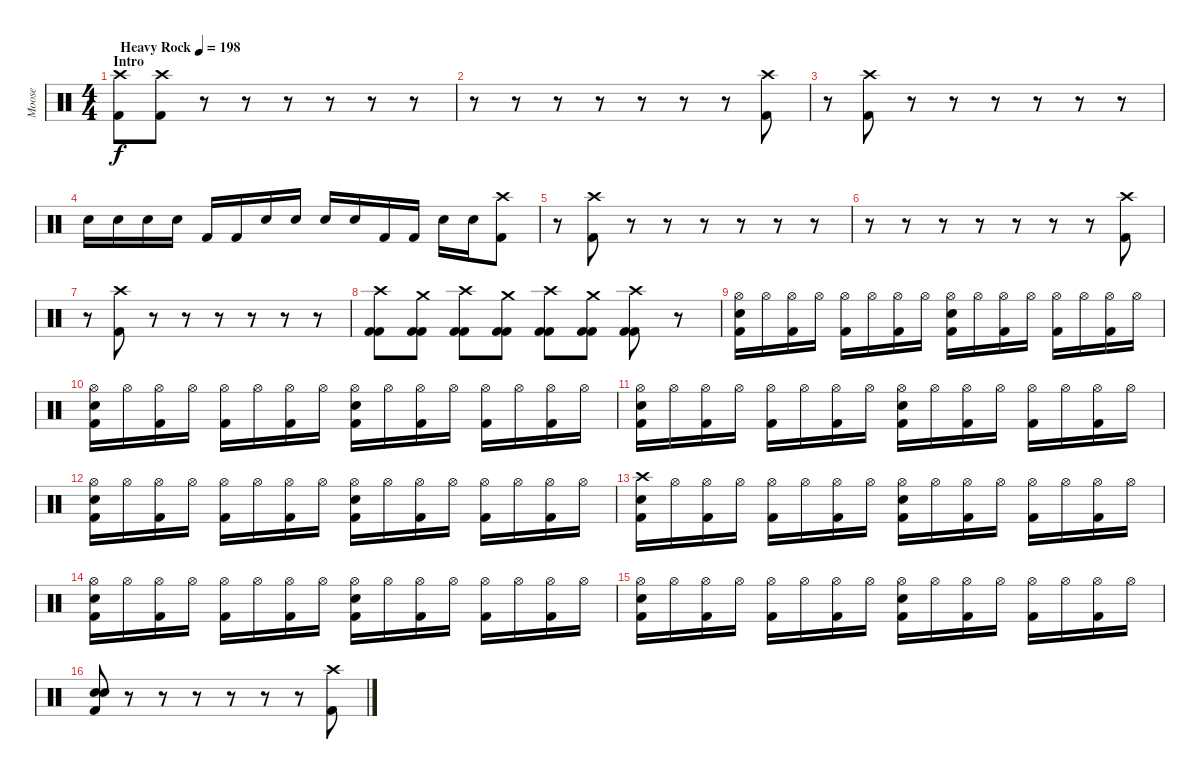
\track ("Moose" "Moose") {instrument percussion}
\staff {score}
\articulation defaults
\ts (4 4)
\section ("" "Intro")
\tempo (198 "Heavy Rock")
\clef neutral
\ks c
("Crash high (hit)" "Kick (hit) 2").8{dy f} ("Crash high (hit)" "Kick (hit) 2").8 r.8 r.8 r.8 r.8 r.8 r.8 |
r.8 r.8 r.8 r.8 r.8 r.8 r.8 ("Crash high (hit)" "Kick (hit) 2").8 |
r.8 ("Crash high (hit)" "Kick (hit) 2").8 r.8 r.8 r.8 r.8 r.8 r.8 |
"Electric Snare (hit)".16 "Electric Snare (hit)".16 "Electric Snare (hit)".16 "Electric Snare (hit)".16 "Kick (hit) 2".16 "Kick (hit) 2".16 "Electric Snare (hit)".16 "Electric Snare (hit)".16 "Electric Snare (hit)".16 "Electric Snare (hit)".16 "Kick (hit) 2".16 "Kick (hit) 2".16 "Electric Snare (hit)".16 "Electric Snare (hit)".16 ("Crash high (hit)" "Kick (hit) 2").8 |
r.8 ("Crash high (hit)" "Kick (hit) 2").8 r.8 r.8 r.8 r.8 r.8 r.8 |
r.8 r.8 r.8 r.8 r.8 r.8 r.8 ("Crash high (hit)" "Kick (hit) 2").8 |
r.8 ("Crash high (hit)" "Kick (hit) 2").8 r.8 r.8 r.8 r.8 r.8 r.8 |
("Crash high (hit)" "Kick (hit) 2" "Kick (hit) 2").8 ("Crash medium (hit)" "Kick (hit) 2" "Kick (hit) 2").8 ("Crash high (hit)" "Kick (hit) 2" "Kick (hit) 2").8 ("Crash medium (hit)" "Kick (hit) 2" "Kick (hit) 2").8 ("Crash high (hit)" "Kick (hit) 2" "Kick (hit) 2").8 ("Crash medium (hit)" "Kick (hit) 2" "Kick (hit) 2").8 ("Crash high (hit)" "Kick (hit) 2" "Kick (hit) 2").8 r.8 |
("Hi-Hat (open)" "Electric Snare (hit)" "Kick (hit) 2").16 "Hi-Hat (open)".16 ("Hi-Hat (open)" "Kick (hit) 2").16 "Hi-Hat (open)".16 ("Hi-Hat (open)" "Kick (hit) 2").16 "Hi-Hat (open)".16 ("Hi-Hat (open)" "Kick (hit) 2").16 "Hi-Hat (open)".16 ("Hi-Hat (open)" "Electric Snare (hit)" "Kick (hit) 2").16 "Hi-Hat (open)".16 ("Hi-Hat (open)" "Kick (hit) 2").16 "Hi-Hat (open)".16 ("Hi-Hat (open)" "Kick (hit) 2").16 "Hi-Hat (open)".16 ("Hi-Hat (open)" "Kick (hit) 2").16 "Hi-Hat (open)".16 |
("Hi-Hat (open)" "Electric Snare (hit)" "Kick (hit) 2").16 "Hi-Hat (open)".16 ("Hi-Hat (open)" "Kick (hit) 2").16 "Hi-Hat (open)".16 ("Hi-Hat (open)" "Kick (hit) 2").16 "Hi-Hat (open)".16 ("Hi-Hat (open)" "Kick (hit) 2").16 "Hi-Hat (open)".16 ("Hi-Hat (open)" "Electric Snare (hit)" "Kick (hit) 2").16 "Hi-Hat (open)".16 ("Hi-Hat (open)" "Kick (hit) 2").16 "Hi-Hat (open)".16 ("Hi-Hat (open)" "Kick (hit) 2").16 "Hi-Hat (open)".16 ("Hi-Hat (open)" "Kick (hit) 2").16 "Hi-Hat (open)".16 |
("Hi-Hat (open)" "Electric Snare (hit)" "Kick (hit) 2").16 "Hi-Hat (open)".16 ("Hi-Hat (open)" "Kick (hit) 2").16 "Hi-Hat (open)".16 ("Hi-Hat (open)" "Kick (hit) 2").16 "Hi-Hat (open)".16 ("Hi-Hat (open)" "Kick (hit) 2").16 "Hi-Hat (open)".16 ("Hi-Hat (open)" "Electric Snare (hit)" "Kick (hit) 2").16 "Hi-Hat (open)".16 ("Hi-Hat (open)" "Kick (hit) 2").16 "Hi-Hat (open)".16 ("Hi-Hat (open)" "Kick (hit) 2").16 "Hi-Hat (open)".16 ("Hi-Hat (open)" "Kick (hit) 2").16 "Hi-Hat (open)".16 |
("Hi-Hat (open)" "Electric Snare (hit)" "Kick (hit) 2").16 "Hi-Hat (open)".16 ("Hi-Hat (open)" "Kick (hit) 2").16 "Hi-Hat (open)".16 ("Hi-Hat (open)" "Kick (hit) 2").16 "Hi-Hat (open)".16 ("Hi-Hat (open)" "Kick (hit) 2").16 "Hi-Hat (open)".16 ("Hi-Hat (open)" "Electric Snare (hit)" "Kick (hit) 2").16 "Hi-Hat (open)".16 ("Hi-Hat (open)" "Kick (hit) 2").16 "Hi-Hat (open)".16 ("Hi-Hat (open)" "Kick (hit) 2").16 "Hi-Hat (open)".16 ("Hi-Hat (open)" "Kick (hit) 2").16 "Hi-Hat (open)".16 |
("Crash high (hit)" "Electric Snare (hit)" "Kick (hit) 2").16 "Hi-Hat (open)".16 ("Hi-Hat (open)" "Kick (hit) 2").16 "Hi-Hat (open)".16 ("Hi-Hat (open)" "Kick (hit) 2").16 "Hi-Hat (open)".16 ("Hi-Hat (open)" "Kick (hit) 2").16 "Hi-Hat (open)".16 ("Hi-Hat (open)" "Electric Snare (hit)" "Kick (hit) 2").16 "Hi-Hat (open)".16 ("Hi-Hat (open)" "Kick (hit) 2").16 "Hi-Hat (open)".16 ("Hi-Hat (open)" "Kick (hit) 2").16 "Hi-Hat (open)".16 ("Hi-Hat (open)" "Kick (hit) 2").16 "Hi-Hat (open)".16 |
("Hi-Hat (open)" "Electric Snare (hit)" "Kick (hit) 2").16 "Hi-Hat (open)".16 ("Hi-Hat (open)" "Kick (hit) 2").16 "Hi-Hat (open)".16 ("Hi-Hat (open)" "Kick (hit) 2").16 "Hi-Hat (open)".16 ("Hi-Hat (open)" "Kick (hit) 2").16 "Hi-Hat (open)".16 ("Hi-Hat (open)" "Electric Snare (hit)" "Kick (hit) 2").16 "Hi-Hat (open)".16 ("Hi-Hat (open)" "Kick (hit) 2").16 "Hi-Hat (open)".16 ("Hi-Hat (open)" "Kick (hit) 2").16 "Hi-Hat (open)".16 ("Hi-Hat (open)" "Kick (hit) 2").16 "Hi-Hat (open)".16 |
("Hi-Hat (open)" "Electric Snare (hit)" "Kick (hit) 2").16 "Hi-Hat (open)".16 ("Hi-Hat (open)" "Kick (hit) 2").16 "Hi-Hat (open)".16 ("Hi-Hat (open)" "Kick (hit) 2").16 "Hi-Hat (open)".16 ("Hi-Hat (open)" "Kick (hit) 2").16 "Hi-Hat (open)".16 ("Hi-Hat (open)" "Electric Snare (hit)" "Kick (hit) 2").16 "Hi-Hat (open)".16 ("Hi-Hat (open)" "Kick (hit) 2").16 "Hi-Hat (open)".16 ("Hi-Hat (open)" "Kick (hit) 2").16 "Hi-Hat (open)".16 ("Hi-Hat (open)" "Kick (hit) 2").16 "Hi-Hat (open)".16 |
("Electric Snare (hit)" "Electric Snare (hit)" "Kick (hit) 2").8 r.8 r.8 r.8 r.8 r.8 r.8 ("Crash high (hit)" "Kick (hit) 2").8
